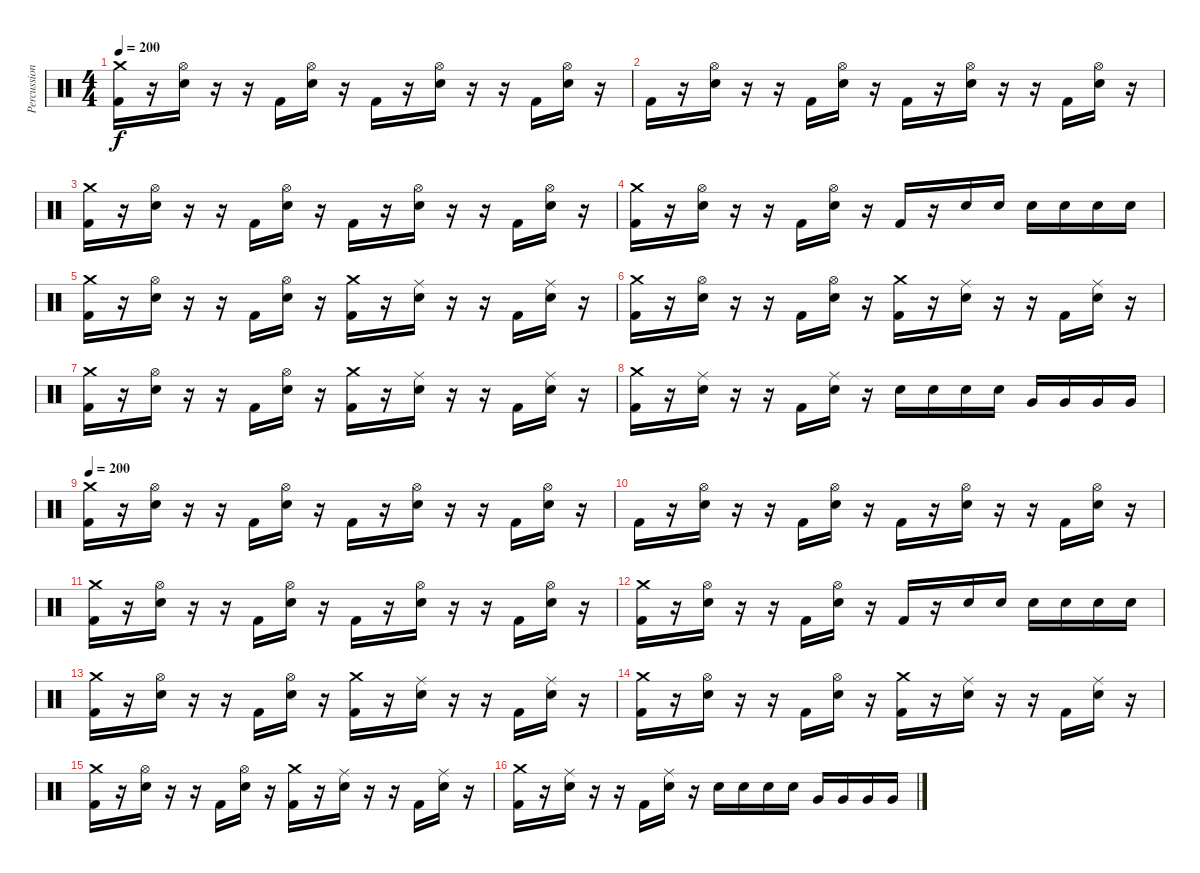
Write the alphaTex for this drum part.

\track ("Percussion" "Percussion") {instrument percussion}
\staff {score}
\articulation defaults
\ts (4 4)
\tempo 200
\clef neutral
\ks c
("Crash medium (hit)" "Kick (hit) 2").16{dy f} r.16 ("Hi-Hat (open)" "Electric Snare (hit)").16 r.16 r.16 "Kick (hit) 2".16 ("Hi-Hat (open)" "Electric Snare (hit)").16 r.16 "Kick (hit) 2".16 r.16 ("Hi-Hat (open)" "Electric Snare (hit)").16 r.16 r.16 "Kick (hit) 2".16 ("Hi-Hat (open)" "Electric Snare (hit)").16 r.16 |
"Kick (hit) 2".16 r.16 ("Hi-Hat (open)" "Electric Snare (hit)").16 r.16 r.16 "Kick (hit) 2".16 ("Hi-Hat (open)" "Electric Snare (hit)").16 r.16 "Kick (hit) 2".16 r.16 ("Hi-Hat (open)" "Electric Snare (hit)").16 r.16 r.16 "Kick (hit) 2".16 ("Hi-Hat (open)" "Electric Snare (hit)").16 r.16 |
("Crash medium (hit)" "Kick (hit) 2").16 r.16 ("Hi-Hat (open)" "Electric Snare (hit)").16 r.16 r.16 "Kick (hit) 2".16 ("Hi-Hat (open)" "Electric Snare (hit)").16 r.16 "Kick (hit) 2".16 r.16 ("Hi-Hat (open)" "Electric Snare (hit)").16 r.16 r.16 "Kick (hit) 2".16 ("Hi-Hat (open)" "Electric Snare (hit)").16 r.16 |
("Crash medium (hit)" "Kick (hit) 2").16 r.16 ("Hi-Hat (open)" "Electric Snare (hit)").16 r.16 r.16 "Kick (hit) 2".16 ("Hi-Hat (open)" "Electric Snare (hit)").16 r.16 "Kick (hit) 2".16 r.16 "Electric Snare (hit)".16 "Electric Snare (hit)".16 "Electric Snare (hit)".16 "Electric Snare (hit)".16 "Electric Snare (hit)".16 "Electric Snare (hit)".16 |
("Crash medium (hit)" "Kick (hit) 2").16 r.16 ("Hi-Hat (open)" "Electric Snare (hit)").16 r.16 r.16 "Kick (hit) 2".16 ("Hi-Hat (open)" "Electric Snare (hit)").16 r.16 ("Crash medium (hit)" "Kick (hit) 2").16 r.16 ("Ride (middle)" "Electric Snare (hit)").16 r.16 r.16 "Kick (hit) 2".16 ("Ride (middle)" "Electric Snare (hit)").16 r.16 |
("Crash medium (hit)" "Kick (hit) 2").16 r.16 ("Hi-Hat (open)" "Electric Snare (hit)").16 r.16 r.16 "Kick (hit) 2".16 ("Hi-Hat (open)" "Electric Snare (hit)").16 r.16 ("Crash medium (hit)" "Kick (hit) 2").16 r.16 ("Ride (middle)" "Electric Snare (hit)").16 r.16 r.16 "Kick (hit) 2".16 ("Ride (middle)" "Electric Snare (hit)").16 r.16 |
("Crash medium (hit)" "Kick (hit) 2").16 r.16 ("Hi-Hat (open)" "Electric Snare (hit)").16 r.16 r.16 "Kick (hit) 2".16 ("Hi-Hat (open)" "Electric Snare (hit)").16 r.16 ("Crash medium (hit)" "Kick (hit) 2").16 r.16 ("Ride (middle)" "Electric Snare (hit)").16 r.16 r.16 "Kick (hit) 2".16 ("Ride (middle)" "Electric Snare (hit)").16 r.16 |
("Crash medium (hit)" "Kick (hit) 2").16 r.16 ("Ride (middle)" "Electric Snare (hit)").16 r.16 r.16 "Kick (hit) 2".16 ("Ride (middle)" "Electric Snare (hit)").16 r.16 "Electric Snare (hit)".16 "Electric Snare (hit)".16 "Electric Snare (hit)".16 "Electric Snare (hit)".16 "Very Low Tom (hit)".16 "Very Low Tom (hit)".16 "Very Low Tom (hit)".16 "Very Low Tom (hit)".16 |
\tempo 200
("Crash medium (hit)" "Kick (hit) 2").16 r.16 ("Hi-Hat (open)" "Electric Snare (hit)").16 r.16 r.16 "Kick (hit) 2".16 ("Hi-Hat (open)" "Electric Snare (hit)").16 r.16 "Kick (hit) 2".16 r.16 ("Hi-Hat (open)" "Electric Snare (hit)").16 r.16 r.16 "Kick (hit) 2".16 ("Hi-Hat (open)" "Electric Snare (hit)").16 r.16 |
"Kick (hit) 2".16 r.16 ("Hi-Hat (open)" "Electric Snare (hit)").16 r.16 r.16 "Kick (hit) 2".16 ("Hi-Hat (open)" "Electric Snare (hit)").16 r.16 "Kick (hit) 2".16 r.16 ("Hi-Hat (open)" "Electric Snare (hit)").16 r.16 r.16 "Kick (hit) 2".16 ("Hi-Hat (open)" "Electric Snare (hit)").16 r.16 |
("Crash medium (hit)" "Kick (hit) 2").16 r.16 ("Hi-Hat (open)" "Electric Snare (hit)").16 r.16 r.16 "Kick (hit) 2".16 ("Hi-Hat (open)" "Electric Snare (hit)").16 r.16 "Kick (hit) 2".16 r.16 ("Hi-Hat (open)" "Electric Snare (hit)").16 r.16 r.16 "Kick (hit) 2".16 ("Hi-Hat (open)" "Electric Snare (hit)").16 r.16 |
("Crash medium (hit)" "Kick (hit) 2").16 r.16 ("Hi-Hat (open)" "Electric Snare (hit)").16 r.16 r.16 "Kick (hit) 2".16 ("Hi-Hat (open)" "Electric Snare (hit)").16 r.16 "Kick (hit) 2".16 r.16 "Electric Snare (hit)".16 "Electric Snare (hit)".16 "Electric Snare (hit)".16 "Electric Snare (hit)".16 "Electric Snare (hit)".16 "Electric Snare (hit)".16 |
("Crash medium (hit)" "Kick (hit) 2").16 r.16 ("Hi-Hat (open)" "Electric Snare (hit)").16 r.16 r.16 "Kick (hit) 2".16 ("Hi-Hat (open)" "Electric Snare (hit)").16 r.16 ("Crash medium (hit)" "Kick (hit) 2").16 r.16 ("Ride (middle)" "Electric Snare (hit)").16 r.16 r.16 "Kick (hit) 2".16 ("Ride (middle)" "Electric Snare (hit)").16 r.16 |
("Crash medium (hit)" "Kick (hit) 2").16 r.16 ("Hi-Hat (open)" "Electric Snare (hit)").16 r.16 r.16 "Kick (hit) 2".16 ("Hi-Hat (open)" "Electric Snare (hit)").16 r.16 ("Crash medium (hit)" "Kick (hit) 2").16 r.16 ("Ride (middle)" "Electric Snare (hit)").16 r.16 r.16 "Kick (hit) 2".16 ("Ride (middle)" "Electric Snare (hit)").16 r.16 |
("Crash medium (hit)" "Kick (hit) 2").16 r.16 ("Hi-Hat (open)" "Electric Snare (hit)").16 r.16 r.16 "Kick (hit) 2".16 ("Hi-Hat (open)" "Electric Snare (hit)").16 r.16 ("Crash medium (hit)" "Kick (hit) 2").16 r.16 ("Ride (middle)" "Electric Snare (hit)").16 r.16 r.16 "Kick (hit) 2".16 ("Ride (middle)" "Electric Snare (hit)").16 r.16 |
("Crash medium (hit)" "Kick (hit) 2").16 r.16 ("Ride (middle)" "Electric Snare (hit)").16 r.16 r.16 "Kick (hit) 2".16 ("Ride (middle)" "Electric Snare (hit)").16 r.16 "Electric Snare (hit)".16 "Electric Snare (hit)".16 "Electric Snare (hit)".16 "Electric Snare (hit)".16 "Very Low Tom (hit)".16 "Very Low Tom (hit)".16 "Very Low Tom (hit)".16 "Very Low Tom (hit)".16
